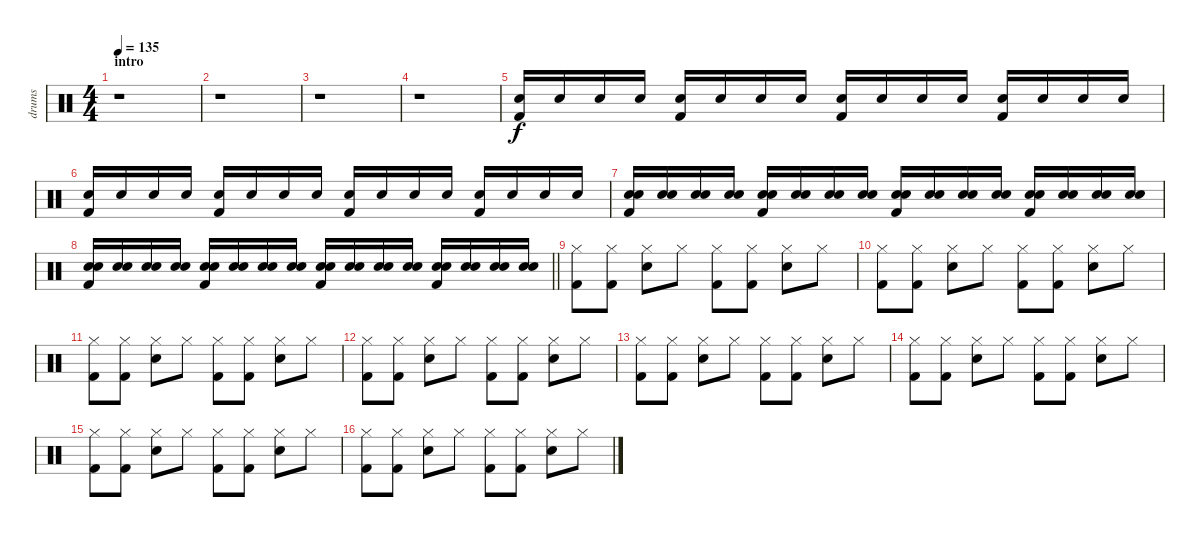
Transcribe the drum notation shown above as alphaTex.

\track ("drums" "drums") {instrument percussion}
\staff {score}
\articulation defaults
\ts (4 4)
\section ("" "intro")
\tempo 135
\clef neutral
\ks c
r.1{dy f} |
r.1 |
r.1 |
r.1 |
("Electric Snare (hit)" "Kick (hit) 2").16 "Electric Snare (hit)".16 "Electric Snare (hit)".16 "Electric Snare (hit)".16 ("Electric Snare (hit)" "Kick (hit) 2").16 "Electric Snare (hit)".16 "Electric Snare (hit)".16 "Electric Snare (hit)".16 ("Electric Snare (hit)" "Kick (hit) 2").16 "Electric Snare (hit)".16 "Electric Snare (hit)".16 "Electric Snare (hit)".16 ("Electric Snare (hit)" "Kick (hit) 2").16 "Electric Snare (hit)".16 "Electric Snare (hit)".16 "Electric Snare (hit)".16 |
("Electric Snare (hit)" "Kick (hit) 2").16 "Electric Snare (hit)".16 "Electric Snare (hit)".16 "Electric Snare (hit)".16 ("Electric Snare (hit)" "Kick (hit) 2").16 "Electric Snare (hit)".16 "Electric Snare (hit)".16 "Electric Snare (hit)".16 ("Electric Snare (hit)" "Kick (hit) 2").16 "Electric Snare (hit)".16 "Electric Snare (hit)".16 "Electric Snare (hit)".16 ("Electric Snare (hit)" "Kick (hit) 2").16 "Electric Snare (hit)".16 "Electric Snare (hit)".16 "Electric Snare (hit)".16 |
("Electric Snare (hit)" "Electric Snare (hit)" "Kick (hit) 2").16 ("Electric Snare (hit)" "Electric Snare (hit)").16 ("Electric Snare (hit)" "Electric Snare (hit)").16 ("Electric Snare (hit)" "Electric Snare (hit)").16 ("Electric Snare (hit)" "Electric Snare (hit)" "Kick (hit) 2").16 ("Electric Snare (hit)" "Electric Snare (hit)").16 ("Electric Snare (hit)" "Electric Snare (hit)").16 ("Electric Snare (hit)" "Electric Snare (hit)").16 ("Electric Snare (hit)" "Electric Snare (hit)" "Kick (hit) 2").16 ("Electric Snare (hit)" "Electric Snare (hit)").16 ("Electric Snare (hit)" "Electric Snare (hit)").16 ("Electric Snare (hit)" "Electric Snare (hit)").16 ("Electric Snare (hit)" "Electric Snare (hit)" "Kick (hit) 2").16 ("Electric Snare (hit)" "Electric Snare (hit)").16 ("Electric Snare (hit)" "Electric Snare (hit)").16 ("Electric Snare (hit)" "Electric Snare (hit)").16 |
\barLineRight lightlight
("Electric Snare (hit)" "Electric Snare (hit)" "Kick (hit) 2").16 ("Electric Snare (hit)" "Electric Snare (hit)").16 ("Electric Snare (hit)" "Electric Snare (hit)").16 ("Electric Snare (hit)" "Electric Snare (hit)").16 ("Electric Snare (hit)" "Electric Snare (hit)" "Kick (hit) 2").16 ("Electric Snare (hit)" "Electric Snare (hit)").16 ("Electric Snare (hit)" "Electric Snare (hit)").16 ("Electric Snare (hit)" "Electric Snare (hit)").16 ("Electric Snare (hit)" "Electric Snare (hit)" "Kick (hit) 2").16 ("Electric Snare (hit)" "Electric Snare (hit)").16 ("Electric Snare (hit)" "Electric Snare (hit)").16 ("Electric Snare (hit)" "Electric Snare (hit)").16 ("Electric Snare (hit)" "Electric Snare (hit)" "Kick (hit) 2").16 ("Electric Snare (hit)" "Electric Snare (hit)").16 ("Electric Snare (hit)" "Electric Snare (hit)").16 ("Electric Snare (hit)" "Electric Snare (hit)").16 |
("Hi-Hat (closed)" "Kick (hit) 2").8 ("Hi-Hat (closed)" "Kick (hit) 2").8 ("Hi-Hat (closed)" "Electric Snare (hit)").8 "Hi-Hat (closed)".8 ("Hi-Hat (closed)" "Kick (hit) 2").8 ("Hi-Hat (closed)" "Kick (hit) 2").8 ("Hi-Hat (closed)" "Electric Snare (hit)").8 "Hi-Hat (closed)".8 |
("Hi-Hat (closed)" "Kick (hit) 2").8 ("Hi-Hat (closed)" "Kick (hit) 2").8 ("Hi-Hat (closed)" "Electric Snare (hit)").8 "Hi-Hat (closed)".8 ("Hi-Hat (closed)" "Kick (hit) 2").8 ("Hi-Hat (closed)" "Kick (hit) 2").8 ("Hi-Hat (closed)" "Electric Snare (hit)").8 "Hi-Hat (closed)".8 |
("Hi-Hat (closed)" "Kick (hit) 2").8 ("Hi-Hat (closed)" "Kick (hit) 2").8 ("Hi-Hat (closed)" "Electric Snare (hit)").8 "Hi-Hat (closed)".8 ("Hi-Hat (closed)" "Kick (hit) 2").8 ("Hi-Hat (closed)" "Kick (hit) 2").8 ("Hi-Hat (closed)" "Electric Snare (hit)").8 "Hi-Hat (closed)".8 |
("Hi-Hat (closed)" "Kick (hit) 2").8 ("Hi-Hat (closed)" "Kick (hit) 2").8 ("Hi-Hat (closed)" "Electric Snare (hit)").8 "Hi-Hat (closed)".8 ("Hi-Hat (closed)" "Kick (hit) 2").8 ("Hi-Hat (closed)" "Kick (hit) 2").8 ("Hi-Hat (closed)" "Electric Snare (hit)").8 "Hi-Hat (closed)".8 |
("Hi-Hat (closed)" "Kick (hit) 2").8 ("Hi-Hat (closed)" "Kick (hit) 2").8 ("Hi-Hat (closed)" "Electric Snare (hit)").8 "Hi-Hat (closed)".8 ("Hi-Hat (closed)" "Kick (hit) 2").8 ("Hi-Hat (closed)" "Kick (hit) 2").8 ("Hi-Hat (closed)" "Electric Snare (hit)").8 "Hi-Hat (closed)".8 |
("Hi-Hat (closed)" "Kick (hit) 2").8 ("Hi-Hat (closed)" "Kick (hit) 2").8 ("Hi-Hat (closed)" "Electric Snare (hit)").8 "Hi-Hat (closed)".8 ("Hi-Hat (closed)" "Kick (hit) 2").8 ("Hi-Hat (closed)" "Kick (hit) 2").8 ("Hi-Hat (closed)" "Electric Snare (hit)").8 "Hi-Hat (closed)".8 |
("Hi-Hat (closed)" "Kick (hit) 2").8 ("Hi-Hat (closed)" "Kick (hit) 2").8 ("Hi-Hat (closed)" "Electric Snare (hit)").8 "Hi-Hat (closed)".8 ("Hi-Hat (closed)" "Kick (hit) 2").8 ("Hi-Hat (closed)" "Kick (hit) 2").8 ("Hi-Hat (closed)" "Electric Snare (hit)").8 "Hi-Hat (closed)".8 |
("Hi-Hat (closed)" "Kick (hit) 2").8 ("Hi-Hat (closed)" "Kick (hit) 2").8 ("Hi-Hat (closed)" "Electric Snare (hit)").8 "Hi-Hat (closed)".8 ("Hi-Hat (closed)" "Kick (hit) 2").8 ("Hi-Hat (closed)" "Kick (hit) 2").8 ("Hi-Hat (closed)" "Electric Snare (hit)").8 "Hi-Hat (closed)".8
